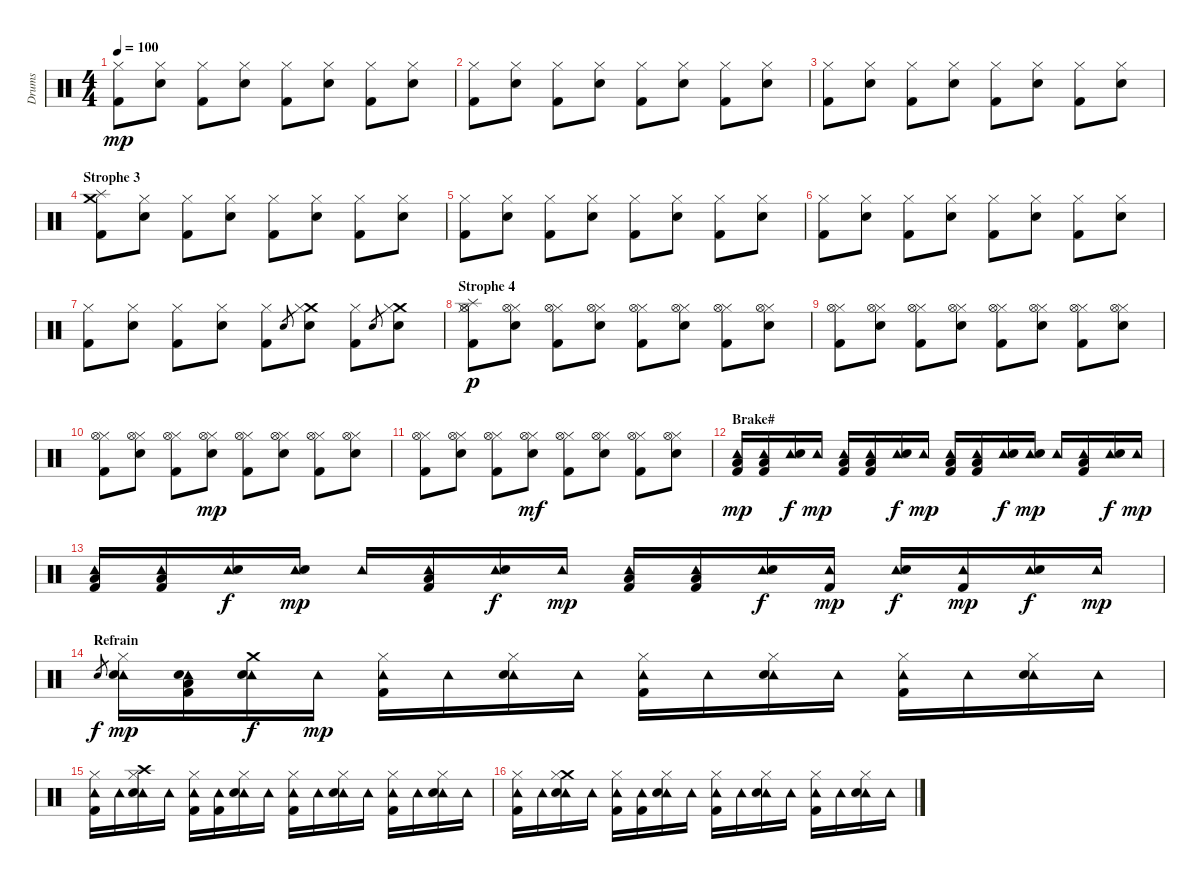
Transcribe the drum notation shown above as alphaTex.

\track ("Drums" "Drums") {instrument percussion}
\staff {score}
\articulation defaults
\ts (4 4)
\tempo 100
\clef neutral
\ks c
("Hi-Hat (closed)" "Kick (hit) 2").8{dy mp} ("Hi-Hat (closed)" "Electric Snare (hit)").8 ("Hi-Hat (closed)" "Kick (hit) 2").8 ("Hi-Hat (closed)" "Electric Snare (hit)").8 ("Hi-Hat (closed)" "Kick (hit) 2").8 ("Hi-Hat (closed)" "Electric Snare (hit)").8 ("Hi-Hat (closed)" "Kick (hit) 2").8 ("Hi-Hat (closed)" "Electric Snare (hit)").8 |
("Hi-Hat (closed)" "Kick (hit) 2").8 ("Hi-Hat (closed)" "Electric Snare (hit)").8 ("Hi-Hat (closed)" "Kick (hit) 2").8 ("Hi-Hat (closed)" "Electric Snare (hit)").8 ("Hi-Hat (closed)" "Kick (hit) 2").8 ("Hi-Hat (closed)" "Electric Snare (hit)").8 ("Hi-Hat (closed)" "Kick (hit) 2").8 ("Hi-Hat (closed)" "Electric Snare (hit)").8 |
("Hi-Hat (closed)" "Kick (hit) 2").8 ("Hi-Hat (closed)" "Electric Snare (hit)").8 ("Hi-Hat (closed)" "Kick (hit) 2").8 ("Hi-Hat (closed)" "Electric Snare (hit)").8 ("Hi-Hat (closed)" "Kick (hit) 2").8 ("Hi-Hat (closed)" "Electric Snare (hit)").8 ("Hi-Hat (closed)" "Kick (hit) 2").8 ("Hi-Hat (closed)" "Electric Snare (hit)").8 |
\section ("" "Strophe 3")
("Splash (hit)" "Crash medium (hit)" "Kick (hit) 2").8 ("Hi-Hat (closed)" "Electric Snare (hit)").8 ("Hi-Hat (closed)" "Kick (hit) 2").8 ("Hi-Hat (closed)" "Electric Snare (hit)").8 ("Hi-Hat (closed)" "Kick (hit) 2").8 ("Hi-Hat (closed)" "Electric Snare (hit)").8 ("Hi-Hat (closed)" "Kick (hit) 2").8 ("Hi-Hat (closed)" "Electric Snare (hit)").8 |
("Hi-Hat (closed)" "Kick (hit) 2").8 ("Hi-Hat (closed)" "Electric Snare (hit)").8 ("Hi-Hat (closed)" "Kick (hit) 2").8 ("Hi-Hat (closed)" "Electric Snare (hit)").8 ("Hi-Hat (closed)" "Kick (hit) 2").8 ("Hi-Hat (closed)" "Electric Snare (hit)").8 ("Hi-Hat (closed)" "Kick (hit) 2").8 ("Hi-Hat (closed)" "Electric Snare (hit)").8 |
("Hi-Hat (closed)" "Kick (hit) 2").8 ("Hi-Hat (closed)" "Electric Snare (hit)").8 ("Hi-Hat (closed)" "Kick (hit) 2").8 ("Hi-Hat (closed)" "Electric Snare (hit)").8 ("Hi-Hat (closed)" "Kick (hit) 2").8 ("Hi-Hat (closed)" "Electric Snare (hit)").8 ("Hi-Hat (closed)" "Kick (hit) 2").8 ("Hi-Hat (closed)" "Electric Snare (hit)").8 |
("Hi-Hat (closed)" "Kick (hit) 2").8 ("Hi-Hat (closed)" "Electric Snare (hit)").8 ("Hi-Hat (closed)" "Kick (hit) 2").8 ("Hi-Hat (closed)" "Electric Snare (hit)").8 ("Hi-Hat (closed)" "Kick (hit) 2").8 "Electric Snare (hit)".8{gr} ("Crash medium (hit)" "Hi-Hat (closed)" "Electric Snare (hit)").8 ("Hi-Hat (closed)" "Kick (hit) 2").8 "Electric Snare (hit)".8{gr} ("Crash medium (hit)" "Hi-Hat (closed)" "Electric Snare (hit)").8 |
\section ("" "Strophe 4")
("Splash (hit)" "Hi-Hat (closed)" "Hi-Hat (open)" "Kick (hit) 2").8{dy p} ("Hi-Hat (closed)" "Hi-Hat (open)" "Electric Snare (hit)").8 ("Hi-Hat (closed)" "Hi-Hat (open)" "Kick (hit) 2").8 ("Hi-Hat (closed)" "Hi-Hat (open)" "Electric Snare (hit)").8 ("Hi-Hat (closed)" "Hi-Hat (open)" "Kick (hit) 2").8 ("Hi-Hat (closed)" "Hi-Hat (open)" "Electric Snare (hit)").8 ("Hi-Hat (closed)" "Hi-Hat (open)" "Kick (hit) 2").8 ("Hi-Hat (closed)" "Hi-Hat (open)" "Electric Snare (hit)").8 |
("Hi-Hat (closed)" "Hi-Hat (open)" "Kick (hit) 2").8 ("Hi-Hat (closed)" "Hi-Hat (open)" "Electric Snare (hit)").8 ("Hi-Hat (closed)" "Hi-Hat (open)" "Kick (hit) 2").8 ("Hi-Hat (closed)" "Hi-Hat (open)" "Electric Snare (hit)").8 ("Hi-Hat (closed)" "Hi-Hat (open)" "Kick (hit) 2").8 ("Hi-Hat (closed)" "Hi-Hat (open)" "Electric Snare (hit)").8 ("Hi-Hat (closed)" "Hi-Hat (open)" "Kick (hit) 2").8 ("Hi-Hat (closed)" "Hi-Hat (open)" "Electric Snare (hit)").8 |
("Hi-Hat (closed)" "Hi-Hat (open)" "Kick (hit) 2").8 ("Hi-Hat (closed)" "Hi-Hat (open)" "Electric Snare (hit)").8 ("Hi-Hat (closed)" "Hi-Hat (open)" "Kick (hit) 2").8 ("Hi-Hat (closed)" "Hi-Hat (open)" "Electric Snare (hit)").8{dy mp} ("Hi-Hat (closed)" "Hi-Hat (open)" "Kick (hit) 2").8 ("Hi-Hat (closed)" "Hi-Hat (open)" "Electric Snare (hit)").8 ("Hi-Hat (closed)" "Hi-Hat (open)" "Kick (hit) 2").8 ("Hi-Hat (closed)" "Hi-Hat (open)" "Electric Snare (hit)").8 |
("Hi-Hat (closed)" "Hi-Hat (open)" "Kick (hit) 2").8 ("Hi-Hat (closed)" "Hi-Hat (open)" "Electric Snare (hit)").8 ("Hi-Hat (closed)" "Hi-Hat (open)" "Kick (hit) 2").8 ("Hi-Hat (closed)" "Hi-Hat (open)" "Electric Snare (hit)").8{dy mf} ("Hi-Hat (closed)" "Hi-Hat (open)" "Kick (hit) 2").8 ("Hi-Hat (closed)" "Hi-Hat (open)" "Electric Snare (hit)").8 ("Hi-Hat (closed)" "Hi-Hat (open)" "Kick (hit) 2").8 ("Hi-Hat (closed)" "Hi-Hat (open)" "Electric Snare (hit)").8 |
\section ("" "Brake#")
("Tambourine (hit)" "Low Tom (hit)" "Kick (hit) 2").16{dy mp} ("Tambourine (hit)" "Low Tom (hit)" "Kick (hit) 2").16 ("Tambourine (hit)" "Electric Snare (hit)").16{dy f} "Tambourine (hit)".16{dy mp} ("Tambourine (hit)" "Low Tom (hit)" "Kick (hit) 2").16 ("Tambourine (hit)" "Low Tom (hit)" "Kick (hit) 2").16 ("Tambourine (hit)" "Electric Snare (hit)").16{dy f} "Tambourine (hit)".16{dy mp} ("Tambourine (hit)" "Low Tom (hit)" "Kick (hit) 2").16 ("Tambourine (hit)" "Low Tom (hit)" "Kick (hit) 2").16 ("Tambourine (hit)" "Electric Snare (hit)").16{dy f} ("Tambourine (hit)" "Electric Snare (hit)").16{dy mp} "Tambourine (hit)".16 ("Tambourine (hit)" "Low Tom (hit)" "Kick (hit) 2").16 ("Tambourine (hit)" "Electric Snare (hit)").16{dy f} "Tambourine (hit)".16{dy mp} |
("Tambourine (hit)" "Low Tom (hit)" "Kick (hit) 2").16 ("Tambourine (hit)" "Low Tom (hit)" "Kick (hit) 2").16 ("Tambourine (hit)" "Electric Snare (hit)").16{dy f} ("Tambourine (hit)" "Electric Snare (hit)").16{dy mp} "Tambourine (hit)".16 ("Tambourine (hit)" "Low Tom (hit)" "Kick (hit) 2").16 ("Tambourine (hit)" "Electric Snare (hit)").16{dy f} "Tambourine (hit)".16{dy mp} ("Tambourine (hit)" "Low Tom (hit)" "Kick (hit) 2").16 ("Tambourine (hit)" "Low Tom (hit)" "Kick (hit) 2").16 ("Tambourine (hit)" "Electric Snare (hit)").16{dy f} ("Tambourine (hit)" "Kick (hit) 2").16{dy mp} ("Tambourine (hit)" "Electric Snare (hit)").16{dy f} ("Tambourine (hit)" "Kick (hit) 2").16{dy mp} ("Tambourine (hit)" "Electric Snare (hit)").16{dy f} "Tambourine (hit)".16{dy mp} |
\section ("" "Refrain")
"Electric Snare (hit)".8{gr dy f} ("Hi-Hat (closed)" "Tambourine (hit)" "Electric Snare (hit)").16{dy mp} ("Tambourine (hit)" "Electric Snare (hit)" "Low Floor Tom (hit)" "Kick (hit) 2").16 ("Crash medium (hit)" "Tambourine (hit)" "Electric Snare (hit)").16{dy f} "Tambourine (hit)".16{dy mp} ("Hi-Hat (closed)" "Tambourine (hit)" "Kick (hit) 2").16 "Tambourine (hit)".16 ("Hi-Hat (closed)" "Tambourine (hit)" "Electric Snare (hit)").16 "Tambourine (hit)".16 ("Hi-Hat (closed)" "Tambourine (hit)" "Kick (hit) 2").16 "Tambourine (hit)".16 ("Hi-Hat (closed)" "Tambourine (hit)" "Electric Snare (hit)").16 "Tambourine (hit)".16 ("Hi-Hat (closed)" "Tambourine (hit)" "Kick (hit) 2").16 "Tambourine (hit)".16 ("Hi-Hat (closed)" "Tambourine (hit)" "Electric Snare (hit)").16 "Tambourine (hit)".16 |
("Hi-Hat (closed)" "Tambourine (hit)" "Kick (hit) 2").16 "Tambourine (hit)".16 ("Crash high (hit)" "Hi-Hat (closed)" "Tambourine (hit)" "Electric Snare (hit)").16 "Tambourine (hit)".16 ("Hi-Hat (closed)" "Tambourine (hit)" "Kick (hit) 2").16 ("Tambourine (hit)" "Kick (hit) 2").16 ("Hi-Hat (closed)" "Tambourine (hit)" "Electric Snare (hit)").16 "Tambourine (hit)".16 ("Hi-Hat (closed)" "Tambourine (hit)" "Kick (hit) 2").16 "Tambourine (hit)".16 ("Hi-Hat (closed)" "Tambourine (hit)" "Electric Snare (hit)").16 "Tambourine (hit)".16 ("Hi-Hat (closed)" "Tambourine (hit)" "Kick (hit) 2").16 "Tambourine (hit)".16 ("Hi-Hat (closed)" "Tambourine (hit)" "Electric Snare (hit)").16 "Tambourine (hit)".16 |
("Hi-Hat (closed)" "Tambourine (hit)" "Kick (hit) 2").16 "Tambourine (hit)".16 ("Crash medium (hit)" "Hi-Hat (closed)" "Tambourine (hit)" "Electric Snare (hit)").16 "Tambourine (hit)".16 ("Hi-Hat (closed)" "Tambourine (hit)" "Kick (hit) 2").16 ("Tambourine (hit)" "Kick (hit) 2").16 ("Hi-Hat (closed)" "Tambourine (hit)" "Electric Snare (hit)").16 "Tambourine (hit)".16 ("Hi-Hat (closed)" "Tambourine (hit)" "Kick (hit) 2").16 "Tambourine (hit)".16 ("Hi-Hat (closed)" "Tambourine (hit)" "Electric Snare (hit)").16 "Tambourine (hit)".16 ("Hi-Hat (closed)" "Tambourine (hit)" "Kick (hit) 2").16 "Tambourine (hit)".16 ("Hi-Hat (closed)" "Tambourine (hit)" "Electric Snare (hit)").16 "Tambourine (hit)".16
